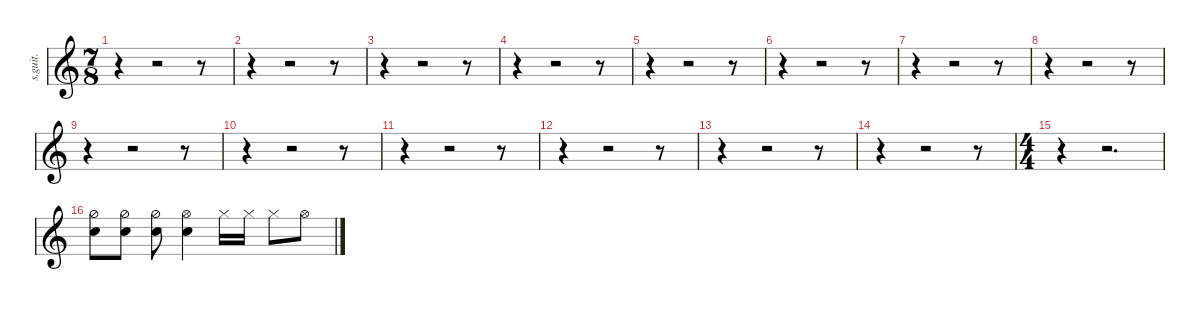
\defaultSystemsLayout 4
\hideDynamics
\bracketExtendMode nobrackets
\track ("Matt Halpern" "s.guit.") {instrument percussion}
\staff {score}
\articulation defaults
\ts (7 8)
\beaming (8 2 2 2 2)
\tempo (213 hide)
\clef g2
\ks c
r.4{dy mf} r.2 r.8 |
r.4 r.2 r.8 |
r.4 r.2 r.8 |
r.4 r.2 r.8 |
r.4 r.2 r.8 |
r.4 r.2 r.8 |
r.4 r.2 r.8 |
r.4 r.2 r.8 |
r.4 r.2 r.8 |
r.4 r.2 r.8 |
r.4 r.2 r.8 |
r.4 r.2 r.8 |
r.4 r.2 r.8 |
r.4 r.2 r.8 |
\ts (4 4)
\beaming (8 2 2 2 2)
r.4 r.2{d} |
("Snare (hit) 2" "Hi-Hat (half)").8{lyrics (0 "") lyrics (1 "") lyrics (2 "") lyrics (3 "") lyrics (4 "")} ("Snare (hit) 2" "Hi-Hat (half)").8{lyrics (0 "") lyrics (1 "") lyrics (2 "") lyrics (3 "") lyrics (4 "")} ("Snare (hit) 2" "Hi-Hat (half)").8{lyrics (0 "") lyrics (1 "") lyrics (2 "") lyrics (3 "") lyrics (4 "")} ("Snare (hit) 2" "Hi-Hat (open)").4{lyrics (0 "") lyrics (1 "") lyrics (2 "") lyrics (3 "") lyrics (4 "")} "Hi-Hat (closed)".16{lyrics (0 "") lyrics (1 "") lyrics (2 "") lyrics (3 "") lyrics (4 "")} "Hi-Hat (closed)".16{lyrics (0 "") lyrics (1 "") lyrics (2 "") lyrics (3 "") lyrics (4 "")} "Hi-Hat (closed)".8{lyrics (0 "") lyrics (1 "") lyrics (2 "") lyrics (3 "") lyrics (4 "")} "Hi-Hat (open)".8{lyrics (0 "") lyrics (1 "") lyrics (2 "") lyrics (3 "") lyrics (4 "")}
